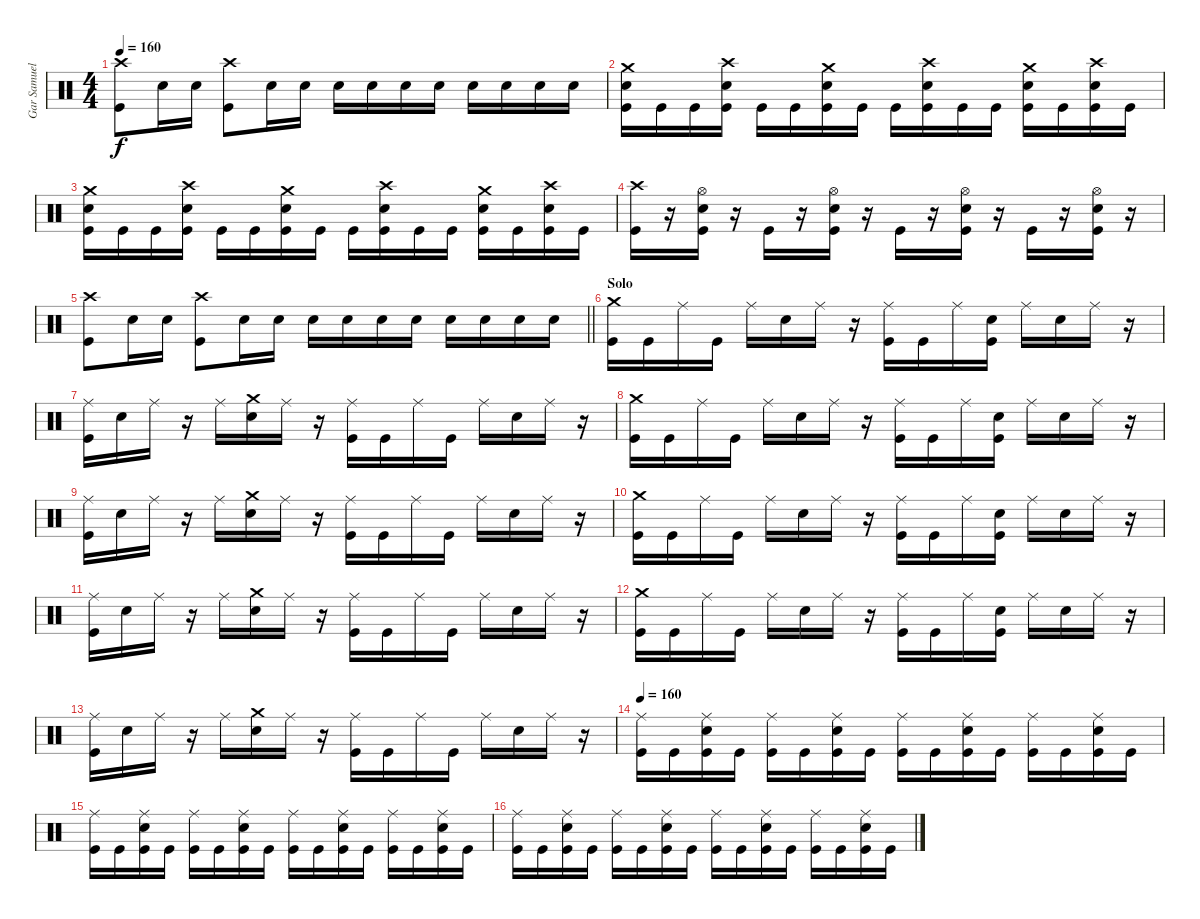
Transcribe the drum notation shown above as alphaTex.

\track ("Gar Samuelson" "Gar Samuel") {instrument percussion}
\staff {score}
\articulation defaults
\ts (4 4)
\tempo 160
\clef neutral
\ks c
("Crash high (hit)" "Kick (hit)").8{dy f} "Snare (hit) 2".16 "Snare (hit) 2".16 ("Crash high (hit)" "Kick (hit)").8 "Snare (hit) 2".16 "Snare (hit) 2".16 "Snare (hit) 2".16 "Snare (hit) 2".16 "Snare (hit) 2".16 "Snare (hit) 2".16 "Snare (hit) 2".16 "Snare (hit) 2".16 "Snare (hit) 2".16 "Snare (hit) 2".16 |
("Crash medium (hit)" "Snare (hit) 2" "Kick (hit)").16 "Kick (hit)".16 "Kick (hit)".16 ("Crash high (hit)" "Snare (hit) 2" "Kick (hit)").16 "Kick (hit)".16 "Kick (hit)".16 ("Crash medium (hit)" "Snare (hit) 2" "Kick (hit)").16 "Kick (hit)".16 "Kick (hit)".16 ("Crash high (hit)" "Snare (hit) 2" "Kick (hit)").16 "Kick (hit)".16 "Kick (hit)".16 ("Crash medium (hit)" "Snare (hit) 2" "Kick (hit)").16 "Kick (hit)".16 ("Crash high (hit)" "Snare (hit) 2" "Kick (hit)").16 "Kick (hit)".16 |
("Crash medium (hit)" "Snare (hit) 2" "Kick (hit)").16 "Kick (hit)".16 "Kick (hit)".16 ("Crash high (hit)" "Snare (hit) 2" "Kick (hit)").16 "Kick (hit)".16 "Kick (hit)".16 ("Crash medium (hit)" "Snare (hit) 2" "Kick (hit)").16 "Kick (hit)".16 "Kick (hit)".16 ("Crash high (hit)" "Snare (hit) 2" "Kick (hit)").16 "Kick (hit)".16 "Kick (hit)".16 ("Crash medium (hit)" "Snare (hit) 2" "Kick (hit)").16 "Kick (hit)".16 ("Crash high (hit)" "Snare (hit) 2" "Kick (hit)").16 "Kick (hit)".16 |
("Crash high (hit)" "Kick (hit)").16 r.16 ("Hi-Hat (open)" "Snare (hit) 2" "Kick (hit)").16 r.16 "Kick (hit)".16 r.16 ("Hi-Hat (open)" "Snare (hit) 2" "Kick (hit)").16 r.16 "Kick (hit)".16 r.16 ("Hi-Hat (open)" "Snare (hit) 2" "Kick (hit)").16 r.16 "Kick (hit)".16 r.16 ("Hi-Hat (open)" "Snare (hit) 2" "Kick (hit)").16 r.16 |
\barLineRight lightlight
("Crash high (hit)" "Kick (hit)").8 "Snare (hit) 2".16 "Snare (hit) 2".16 ("Crash high (hit)" "Kick (hit)").8 "Snare (hit) 2".16 "Snare (hit) 2".16 "Snare (hit) 2".16 "Snare (hit) 2".16 "Snare (hit) 2".16 "Snare (hit) 2".16 "Snare (hit) 2".16 "Snare (hit) 2".16 "Snare (hit) 2".16 "Snare (hit) 2".16 |
\section ("" "Solo")
("Crash medium (hit)" "Kick (hit)").16 "Kick (hit)".16 "Ride (middle)".16 "Kick (hit)".16 "Ride (middle)".16 "Snare (hit) 2".16 "Ride (middle)".16 r.16 ("Ride (middle)" "Kick (hit)").16 "Kick (hit)".16 "Ride (middle)".16 ("Snare (hit) 2" "Kick (hit)").16 "Ride (middle)".16 "Snare (hit) 2".16 "Ride (middle)".16 r.16 |
("Ride (middle)" "Kick (hit)").16 "Snare (hit) 2".16 "Ride (middle)".16 r.16 "Ride (middle)".16 ("Crash medium (hit)" "Snare (hit) 2").16 "Ride (middle)".16 r.16 ("Ride (middle)" "Kick (hit)").16 "Kick (hit)".16 "Ride (middle)".16 "Kick (hit)".16 "Ride (middle)".16 "Snare (hit) 2".16 "Ride (middle)".16 r.16 |
("Crash medium (hit)" "Kick (hit)").16 "Kick (hit)".16 "Ride (middle)".16 "Kick (hit)".16 "Ride (middle)".16 "Snare (hit) 2".16 "Ride (middle)".16 r.16 ("Ride (middle)" "Kick (hit)").16 "Kick (hit)".16 "Ride (middle)".16 ("Snare (hit) 2" "Kick (hit)").16 "Ride (middle)".16 "Snare (hit) 2".16 "Ride (middle)".16 r.16 |
("Ride (middle)" "Kick (hit)").16 "Snare (hit) 2".16 "Ride (middle)".16 r.16 "Ride (middle)".16 ("Crash medium (hit)" "Snare (hit) 2").16 "Ride (middle)".16 r.16 ("Ride (middle)" "Kick (hit)").16 "Kick (hit)".16 "Ride (middle)".16 "Kick (hit)".16 "Ride (middle)".16 "Snare (hit) 2".16 "Ride (middle)".16 r.16 |
("Crash medium (hit)" "Kick (hit)").16 "Kick (hit)".16 "Ride (middle)".16 "Kick (hit)".16 "Ride (middle)".16 "Snare (hit) 2".16 "Ride (middle)".16 r.16 ("Ride (middle)" "Kick (hit)").16 "Kick (hit)".16 "Ride (middle)".16 ("Snare (hit) 2" "Kick (hit)").16 "Ride (middle)".16 "Snare (hit) 2".16 "Ride (middle)".16 r.16 |
("Ride (middle)" "Kick (hit)").16 "Snare (hit) 2".16 "Ride (middle)".16 r.16 "Ride (middle)".16 ("Crash medium (hit)" "Snare (hit) 2").16 "Ride (middle)".16 r.16 ("Ride (middle)" "Kick (hit)").16 "Kick (hit)".16 "Ride (middle)".16 "Kick (hit)".16 "Ride (middle)".16 "Snare (hit) 2".16 "Ride (middle)".16 r.16 |
("Crash medium (hit)" "Kick (hit)").16 "Kick (hit)".16 "Ride (middle)".16 "Kick (hit)".16 "Ride (middle)".16 "Snare (hit) 2".16 "Ride (middle)".16 r.16 ("Ride (middle)" "Kick (hit)").16 "Kick (hit)".16 "Ride (middle)".16 ("Snare (hit) 2" "Kick (hit)").16 "Ride (middle)".16 "Snare (hit) 2".16 "Ride (middle)".16 r.16 |
("Ride (middle)" "Kick (hit)").16 "Snare (hit) 2".16 "Ride (middle)".16 r.16 "Ride (middle)".16 ("Crash medium (hit)" "Snare (hit) 2").16 "Ride (middle)".16 r.16 ("Ride (middle)" "Kick (hit)").16 "Kick (hit)".16 "Ride (middle)".16 "Kick (hit)".16 "Ride (middle)".16 "Snare (hit) 2".16 "Ride (middle)".16 r.16 |
\tempo 160
("Ride (middle)" "Kick (hit)").16 "Kick (hit)".16 ("Ride (middle)" "Snare (hit) 2" "Kick (hit)").16 "Kick (hit)".16 ("Ride (middle)" "Kick (hit)").16 "Kick (hit)".16 ("Ride (middle)" "Snare (hit) 2" "Kick (hit)").16 "Kick (hit)".16 ("Ride (middle)" "Kick (hit)").16 "Kick (hit)".16 ("Ride (middle)" "Snare (hit) 2" "Kick (hit)").16 "Kick (hit)".16 ("Ride (middle)" "Kick (hit)").16 "Kick (hit)".16 ("Ride (middle)" "Snare (hit) 2" "Kick (hit)").16 "Kick (hit)".16 |
("Ride (middle)" "Kick (hit)").16 "Kick (hit)".16 ("Ride (middle)" "Snare (hit) 2" "Kick (hit)").16 "Kick (hit)".16 ("Ride (middle)" "Kick (hit)").16 "Kick (hit)".16 ("Ride (middle)" "Snare (hit) 2" "Kick (hit)").16 "Kick (hit)".16 ("Ride (middle)" "Kick (hit)").16 "Kick (hit)".16 ("Ride (middle)" "Snare (hit) 2" "Kick (hit)").16 "Kick (hit)".16 ("Ride (middle)" "Kick (hit)").16 "Kick (hit)".16 ("Ride (middle)" "Snare (hit) 2" "Kick (hit)").16 "Kick (hit)".16 |
("Ride (middle)" "Kick (hit)").16 "Kick (hit)".16 ("Ride (middle)" "Snare (hit) 2" "Kick (hit)").16 "Kick (hit)".16 ("Ride (middle)" "Kick (hit)").16 "Kick (hit)".16 ("Ride (middle)" "Snare (hit) 2" "Kick (hit)").16 "Kick (hit)".16 ("Ride (middle)" "Kick (hit)").16 "Kick (hit)".16 ("Ride (middle)" "Snare (hit) 2" "Kick (hit)").16 "Kick (hit)".16 ("Ride (middle)" "Kick (hit)").16 "Kick (hit)".16 ("Ride (middle)" "Snare (hit) 2" "Kick (hit)").16 "Kick (hit)".16
